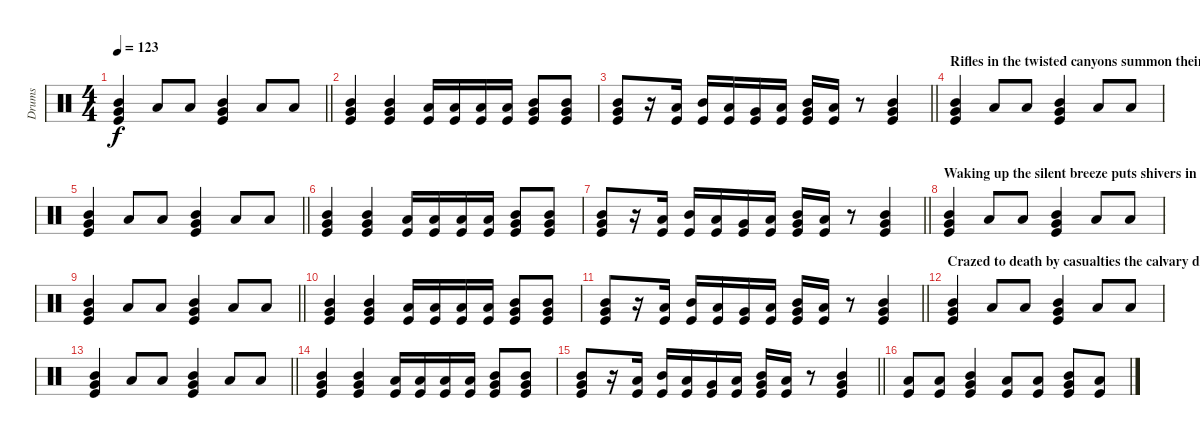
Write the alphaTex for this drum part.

\track ("Drums" "Drums") {instrument percussion}
\staff {score}
\articulation defaults
\ts (4 4)
\tempo 123
\clef neutral
\barLineRight lightlight
\ks c
("Mid Tom (hit)" "Very Low Tom (hit)" "Kick (hit)").4{dy f} "Low Tom (hit)".8 "Low Tom (hit)".8 ("Mid Tom (hit)" "Very Low Tom (hit)" "Kick (hit)").4 "Low Tom (hit)".8 "Low Tom (hit)".8 |
("Mid Tom (hit)" "Very Low Tom (hit)" "Kick (hit)").4 ("Mid Tom (hit)" "Very Low Tom (hit)" "Kick (hit)").4 ("Low Tom (hit)" "Kick (hit)").16 ("Low Tom (hit)" "Kick (hit)").16 ("Low Tom (hit)" "Kick (hit)").16 ("Low Tom (hit)" "Kick (hit)").16 ("Mid Tom (hit)" "Very Low Tom (hit)" "Kick (hit)").8 ("Mid Tom (hit)" "Very Low Tom (hit)" "Kick (hit)").8 |
\barLineRight lightlight
("Mid Tom (hit)" "Very Low Tom (hit)" "Kick (hit)").8 r.16 ("Low Tom (hit)" "Kick (hit)").16 ("Mid Tom (hit)" "Kick (hit)").16 ("Low Tom (hit)" "Kick (hit)").16 ("Very Low Tom (hit)" "Kick (hit)").16 ("Low Floor Tom (hit)" "Kick (hit)").16 ("Mid Tom (hit)" "Very Low Tom (hit)" "Kick (hit)").16 ("Low Tom (hit)" "Kick (hit)").16 r.8 ("Mid Tom (hit)" "Very Low Tom (hit)" "Kick (hit)").4 |
\section ("" "Rifles in the twisted canyons summon their surprise ")
("Mid Tom (hit)" "Very Low Tom (hit)" "Kick (hit)").4 "Low Tom (hit)".8 "Low Tom (hit)".8 ("Mid Tom (hit)" "Very Low Tom (hit)" "Kick (hit)").4 "Low Tom (hit)".8 "Low Tom (hit)".8 |
\barLineRight lightlight
("Mid Tom (hit)" "Very Low Tom (hit)" "Kick (hit)").4 "Low Tom (hit)".8 "Low Tom (hit)".8 ("Mid Tom (hit)" "Very Low Tom (hit)" "Kick (hit)").4 "Low Tom (hit)".8 "Low Tom (hit)".8 |
("Mid Tom (hit)" "Very Low Tom (hit)" "Kick (hit)").4 ("Mid Tom (hit)" "Very Low Tom (hit)" "Kick (hit)").4 ("Low Tom (hit)" "Kick (hit)").16 ("Low Tom (hit)" "Kick (hit)").16 ("Low Tom (hit)" "Kick (hit)").16 ("Low Tom (hit)" "Kick (hit)").16 ("Mid Tom (hit)" "Very Low Tom (hit)" "Kick (hit)").8 ("Mid Tom (hit)" "Very Low Tom (hit)" "Kick (hit)").8 |
\barLineRight lightlight
("Mid Tom (hit)" "Very Low Tom (hit)" "Kick (hit)").8 r.16 ("Low Tom (hit)" "Kick (hit)").16 ("Mid Tom (hit)" "Kick (hit)").16 ("Low Tom (hit)" "Kick (hit)").16 ("Very Low Tom (hit)" "Kick (hit)").16 ("Low Floor Tom (hit)" "Kick (hit)").16 ("Mid Tom (hit)" "Very Low Tom (hit)" "Kick (hit)").16 ("Low Tom (hit)" "Kick (hit)").16 r.8 ("Mid Tom (hit)" "Very Low Tom (hit)" "Kick (hit)").4 |
\section ("" "Waking up the silent breeze puts shivers in their hearts ")
("Mid Tom (hit)" "Very Low Tom (hit)" "Kick (hit)").4 "Low Tom (hit)".8 "Low Tom (hit)".8 ("Mid Tom (hit)" "Very Low Tom (hit)" "Kick (hit)").4 "Low Tom (hit)".8 "Low Tom (hit)".8 |
\barLineRight lightlight
("Mid Tom (hit)" "Very Low Tom (hit)" "Kick (hit)").4 "Low Tom (hit)".8 "Low Tom (hit)".8 ("Mid Tom (hit)" "Very Low Tom (hit)" "Kick (hit)").4 "Low Tom (hit)".8 "Low Tom (hit)".8 |
("Mid Tom (hit)" "Very Low Tom (hit)" "Kick (hit)").4 ("Mid Tom (hit)" "Very Low Tom (hit)" "Kick (hit)").4 ("Low Tom (hit)" "Kick (hit)").16 ("Low Tom (hit)" "Kick (hit)").16 ("Low Tom (hit)" "Kick (hit)").16 ("Low Tom (hit)" "Kick (hit)").16 ("Mid Tom (hit)" "Very Low Tom (hit)" "Kick (hit)").8 ("Mid Tom (hit)" "Very Low Tom (hit)" "Kick (hit)").8 |
\barLineRight lightlight
("Mid Tom (hit)" "Very Low Tom (hit)" "Kick (hit)").8 r.16 ("Low Tom (hit)" "Kick (hit)").16 ("Mid Tom (hit)" "Kick (hit)").16 ("Low Tom (hit)" "Kick (hit)").16 ("Very Low Tom (hit)" "Kick (hit)").16 ("Low Floor Tom (hit)" "Kick (hit)").16 ("Mid Tom (hit)" "Very Low Tom (hit)" "Kick (hit)").16 ("Low Tom (hit)" "Kick (hit)").16 r.8 ("Mid Tom (hit)" "Very Low Tom (hit)" "Kick (hit)").4 |
\section ("" "Crazed to death by casualties the calvary departs ")
("Mid Tom (hit)" "Very Low Tom (hit)" "Kick (hit)").4 "Low Tom (hit)".8 "Low Tom (hit)".8 ("Mid Tom (hit)" "Very Low Tom (hit)" "Kick (hit)").4 "Low Tom (hit)".8 "Low Tom (hit)".8 |
\barLineRight lightlight
("Mid Tom (hit)" "Very Low Tom (hit)" "Kick (hit)").4 "Low Tom (hit)".8 "Low Tom (hit)".8 ("Mid Tom (hit)" "Very Low Tom (hit)" "Kick (hit)").4 "Low Tom (hit)".8 "Low Tom (hit)".8 |
("Mid Tom (hit)" "Very Low Tom (hit)" "Kick (hit)").4 ("Mid Tom (hit)" "Very Low Tom (hit)" "Kick (hit)").4 ("Low Tom (hit)" "Kick (hit)").16 ("Low Tom (hit)" "Kick (hit)").16 ("Low Tom (hit)" "Kick (hit)").16 ("Low Tom (hit)" "Kick (hit)").16 ("Mid Tom (hit)" "Very Low Tom (hit)" "Kick (hit)").8 ("Mid Tom (hit)" "Very Low Tom (hit)" "Kick (hit)").8 |
\barLineRight lightlight
("Mid Tom (hit)" "Very Low Tom (hit)" "Kick (hit)").8 r.16 ("Low Tom (hit)" "Kick (hit)").16 ("Mid Tom (hit)" "Kick (hit)").16 ("Low Tom (hit)" "Kick (hit)").16 ("Very Low Tom (hit)" "Kick (hit)").16 ("Low Floor Tom (hit)" "Kick (hit)").16 ("Mid Tom (hit)" "Very Low Tom (hit)" "Kick (hit)").16 ("Low Tom (hit)" "Kick (hit)").16 r.8 ("Mid Tom (hit)" "Very Low Tom (hit)" "Kick (hit)").4 |
("Low Tom (hit)" "Kick (hit)").8 ("Low Tom (hit)" "Kick (hit)").8 ("Mid Tom (hit)" "Very Low Tom (hit)" "Kick (hit)").4 ("Low Tom (hit)" "Kick (hit)").8 ("Low Tom (hit)" "Kick (hit)").8 ("Mid Tom (hit)" "Very Low Tom (hit)" "Kick (hit)").8 ("Low Tom (hit)" "Kick (hit)").8
